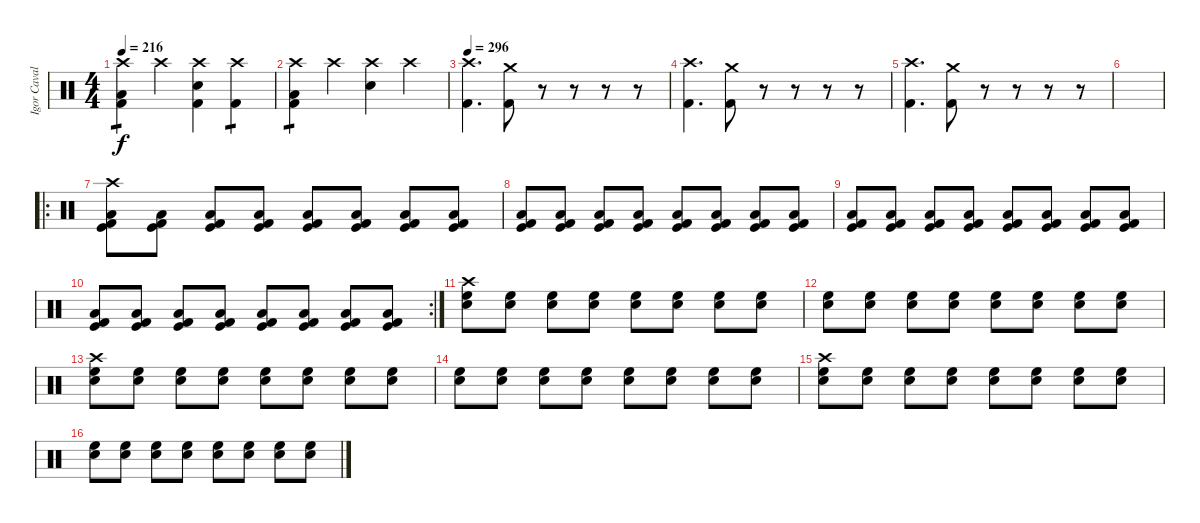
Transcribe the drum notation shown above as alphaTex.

\track ("Igor Cavalera" "Igor Caval") {instrument percussion}
\staff {score}
\articulation defaults
\ts (4 4)
\tempo 216
\clef neutral
\ks c
("Crash high (hit)" "Low Floor Tom (hit)" "Kick (hit) 2").4{tp 1 dy f} "Crash high (hit)".4 ("Crash high (hit)" "Kick (hit) 2" "Snare (hit) 2").4 ("Crash high (hit)" "Kick (hit) 2").4{tp 1} |
("Crash high (hit)" "Low Floor Tom (hit)" "Kick (hit) 2").4{tp 1} "Crash high (hit)".4 ("Crash high (hit)" "Snare (hit) 2").4 "Crash high (hit)".4 |
\tempo 296
("Crash high (hit)" "Kick (hit) 2").4{d} ("Crash medium (hit)" "Kick (hit) 2").8 r.8 r.8 r.8 r.8 |
("Crash high (hit)" "Kick (hit) 2").4{d} ("Crash medium (hit)" "Kick (hit) 2").8 r.8 r.8 r.8 r.8 |
("Crash high (hit)" "Kick (hit) 2").4{d} ("Crash medium (hit)" "Kick (hit) 2").8 r.8 r.8 r.8 r.8 |
|
\ro
("Crash high (hit)" "Low Floor Tom (hit)" "Kick (hit)" "Kick (hit) 2").8 ("Low Floor Tom (hit)" "Kick (hit)" "Kick (hit) 2").8 ("Low Floor Tom (hit)" "Kick (hit)" "Kick (hit) 2").8 ("Low Floor Tom (hit)" "Kick (hit)" "Kick (hit) 2").8 ("Low Floor Tom (hit)" "Kick (hit)" "Kick (hit) 2").8 ("Low Floor Tom (hit)" "Kick (hit)" "Kick (hit) 2").8 ("Low Floor Tom (hit)" "Kick (hit)" "Kick (hit) 2").8 ("Low Floor Tom (hit)" "Kick (hit)" "Kick (hit) 2").8 |
("Low Floor Tom (hit)" "Kick (hit)" "Kick (hit) 2").8 ("Low Floor Tom (hit)" "Kick (hit)" "Kick (hit) 2").8 ("Low Floor Tom (hit)" "Kick (hit)" "Kick (hit) 2").8 ("Low Floor Tom (hit)" "Kick (hit)" "Kick (hit) 2").8 ("Low Floor Tom (hit)" "Kick (hit)" "Kick (hit) 2").8 ("Low Floor Tom (hit)" "Kick (hit)" "Kick (hit) 2").8 ("Low Floor Tom (hit)" "Kick (hit)" "Kick (hit) 2").8 ("Low Floor Tom (hit)" "Kick (hit)" "Kick (hit) 2").8 |
("Low Floor Tom (hit)" "Kick (hit)" "Kick (hit) 2").8 ("Low Floor Tom (hit)" "Kick (hit)" "Kick (hit) 2").8 ("Low Floor Tom (hit)" "Kick (hit)" "Kick (hit) 2").8 ("Low Floor Tom (hit)" "Kick (hit)" "Kick (hit) 2").8 ("Low Floor Tom (hit)" "Kick (hit)" "Kick (hit) 2").8 ("Low Floor Tom (hit)" "Kick (hit)" "Kick (hit) 2").8 ("Low Floor Tom (hit)" "Kick (hit)" "Kick (hit) 2").8 ("Low Floor Tom (hit)" "Kick (hit)" "Kick (hit) 2").8 |
\rc 2
("Low Floor Tom (hit)" "Kick (hit)" "Kick (hit) 2").8 ("Low Floor Tom (hit)" "Kick (hit)" "Kick (hit) 2").8 ("Low Floor Tom (hit)" "Kick (hit)" "Kick (hit) 2").8 ("Low Floor Tom (hit)" "Kick (hit)" "Kick (hit) 2").8 ("Low Floor Tom (hit)" "Kick (hit)" "Kick (hit) 2").8 ("Low Floor Tom (hit)" "Kick (hit)" "Kick (hit) 2").8 ("Low Floor Tom (hit)" "Kick (hit)" "Kick (hit) 2").8 ("Low Floor Tom (hit)" "Kick (hit)" "Kick (hit) 2").8 |
("Crash high (hit)" "High Floor Tom (hit)" "Electric Snare (hit)").8 ("High Floor Tom (hit)" "Electric Snare (hit)").8 ("High Floor Tom (hit)" "Electric Snare (hit)").8 ("High Floor Tom (hit)" "Electric Snare (hit)").8 ("High Floor Tom (hit)" "Electric Snare (hit)").8 ("High Floor Tom (hit)" "Electric Snare (hit)").8 ("High Floor Tom (hit)" "Electric Snare (hit)").8 ("High Floor Tom (hit)" "Electric Snare (hit)").8 |
("High Floor Tom (hit)" "Electric Snare (hit)").8 ("High Floor Tom (hit)" "Electric Snare (hit)").8 ("High Floor Tom (hit)" "Electric Snare (hit)").8 ("High Floor Tom (hit)" "Electric Snare (hit)").8 ("High Floor Tom (hit)" "Electric Snare (hit)").8 ("High Floor Tom (hit)" "Electric Snare (hit)").8 ("High Floor Tom (hit)" "Electric Snare (hit)").8 ("High Floor Tom (hit)" "Electric Snare (hit)").8 |
("Crash high (hit)" "High Floor Tom (hit)" "Electric Snare (hit)").8 ("High Floor Tom (hit)" "Electric Snare (hit)").8 ("High Floor Tom (hit)" "Electric Snare (hit)").8 ("High Floor Tom (hit)" "Electric Snare (hit)").8 ("High Floor Tom (hit)" "Electric Snare (hit)").8 ("High Floor Tom (hit)" "Electric Snare (hit)").8 ("High Floor Tom (hit)" "Electric Snare (hit)").8 ("High Floor Tom (hit)" "Electric Snare (hit)").8 |
("High Floor Tom (hit)" "Electric Snare (hit)").8 ("High Floor Tom (hit)" "Electric Snare (hit)").8 ("High Floor Tom (hit)" "Electric Snare (hit)").8 ("High Floor Tom (hit)" "Electric Snare (hit)").8 ("High Floor Tom (hit)" "Electric Snare (hit)").8 ("High Floor Tom (hit)" "Electric Snare (hit)").8 ("High Floor Tom (hit)" "Electric Snare (hit)").8 ("High Floor Tom (hit)" "Electric Snare (hit)").8 |
("Crash high (hit)" "High Floor Tom (hit)" "Electric Snare (hit)").8 ("High Floor Tom (hit)" "Electric Snare (hit)").8 ("High Floor Tom (hit)" "Electric Snare (hit)").8 ("High Floor Tom (hit)" "Electric Snare (hit)").8 ("High Floor Tom (hit)" "Electric Snare (hit)").8 ("High Floor Tom (hit)" "Electric Snare (hit)").8 ("High Floor Tom (hit)" "Electric Snare (hit)").8 ("High Floor Tom (hit)" "Electric Snare (hit)").8 |
("High Floor Tom (hit)" "Electric Snare (hit)").8 ("High Floor Tom (hit)" "Electric Snare (hit)").8 ("High Floor Tom (hit)" "Electric Snare (hit)").8 ("High Floor Tom (hit)" "Electric Snare (hit)").8 ("High Floor Tom (hit)" "Electric Snare (hit)").8 ("High Floor Tom (hit)" "Electric Snare (hit)").8 ("High Floor Tom (hit)" "Electric Snare (hit)").8 ("High Floor Tom (hit)" "Electric Snare (hit)").8
